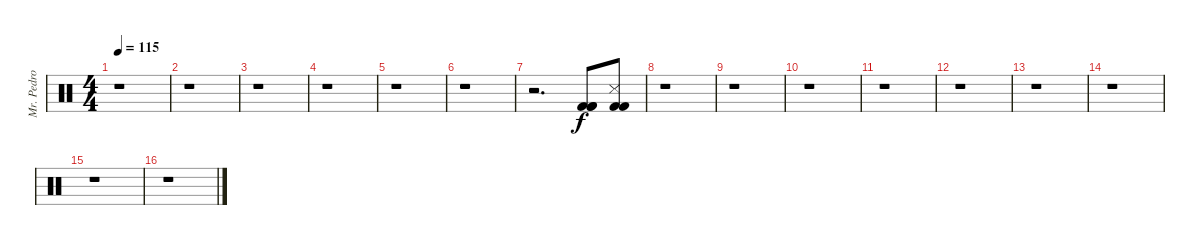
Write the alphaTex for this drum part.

\track ("Mr. Pedro Andreu" "Mr. Pedro ") {instrument percussion}
\staff {score}
\articulation defaults
\ts (4 4)
\tempo 115
\clef neutral
\ks c
r.1{dy f} |
r.1 |
r.1 |
r.1 |
r.1 |
r.1 |
r.2{d} ("Kick (hit) 2" "Kick (hit) 2" "Kick (hit) 2").8 ("Kick (hit) 2" "Snare (side stick) 3" "Kick (hit) 2").8 |
r.1 |
r.1 |
r.1 |
r.1 |
r.1 |
r.1 |
r.1 |
r.1 |
r.1
